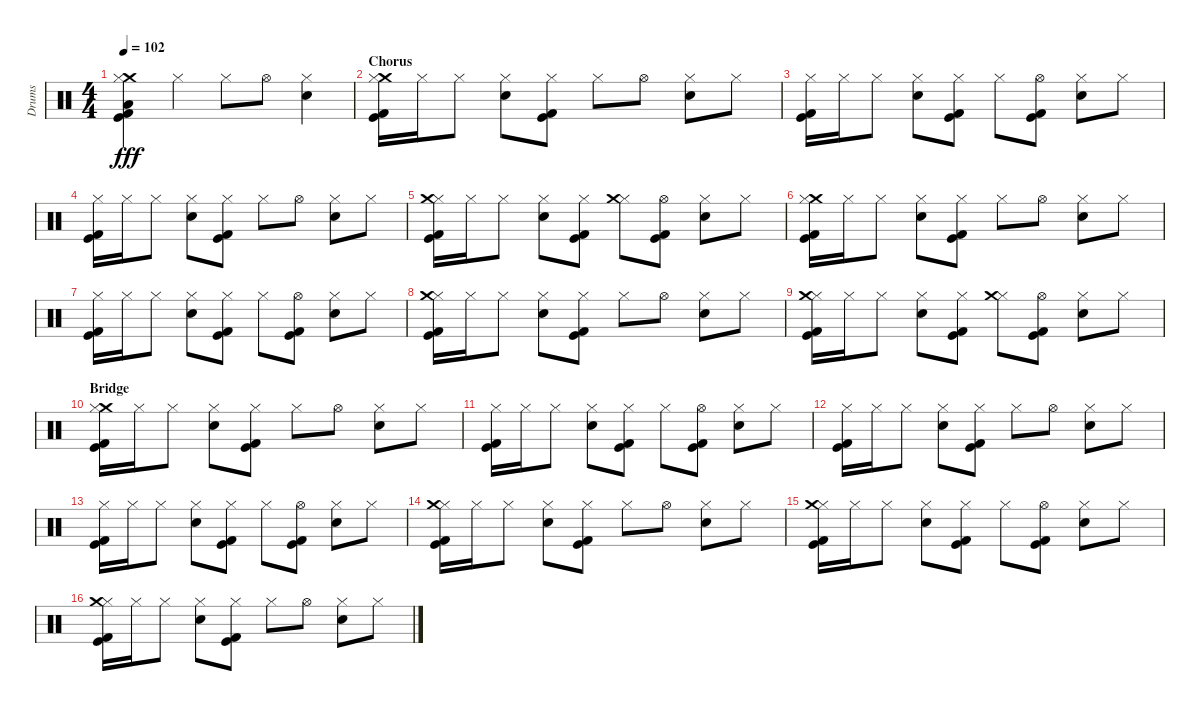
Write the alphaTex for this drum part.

\track ("Drums" "Drums") {instrument percussion}
\staff {score}
\articulation defaults
\ts (4 4)
\tempo 102
\clef neutral
\ks c
("Kick (hit) 2" "Kick (hit)" "Crash medium (hit)" "Low Tom (hit)" "Hi-Hat (closed)").4{dy fff} "Hi-Hat (closed)".4 "Hi-Hat (closed)".8 "Hi-Hat (open)".8 ("Hand Clap (hit)" "Hi-Hat (closed)").4 |
\section ("" "Chorus")
("Crash medium (hit)" "Kick (hit) 2" "Kick (hit)" "Hi-Hat (closed)").16 "Hi-Hat (closed)".16 "Hi-Hat (closed)".8 ("Hand Clap (hit)" "Hi-Hat (closed)").8 ("Kick (hit) 2" "Kick (hit)" "Hi-Hat (closed)").8 "Hi-Hat (closed)".8 "Hi-Hat (open)".8 ("Hand Clap (hit)" "Hi-Hat (closed)").8 "Hi-Hat (closed)".8 |
("Kick (hit) 2" "Kick (hit)" "Hi-Hat (closed)").16 "Hi-Hat (closed)".16 "Hi-Hat (closed)".8 ("Hand Clap (hit)" "Hi-Hat (closed)").8 ("Kick (hit) 2" "Kick (hit)" "Hi-Hat (closed)").8 "Hi-Hat (closed)".8 ("Kick (hit) 2" "Kick (hit)" "Hi-Hat (open)").8 ("Hand Clap (hit)" "Hi-Hat (closed)").8 "Hi-Hat (closed)".8 |
("Kick (hit) 2" "Kick (hit)" "Hi-Hat (closed)").16 "Hi-Hat (closed)".16 "Hi-Hat (closed)".8 ("Hand Clap (hit)" "Hi-Hat (closed)").8 ("Kick (hit) 2" "Kick (hit)" "Hi-Hat (closed)").8 "Hi-Hat (closed)".8 "Hi-Hat (open)".8 ("Hand Clap (hit)" "Hi-Hat (closed)").8 "Hi-Hat (closed)".8 |
("Kick (hit) 2" "Kick (hit)" "Hi-Hat (closed)" "Crash medium (hit)").16 "Hi-Hat (closed)".16 "Hi-Hat (closed)".8 ("Hand Clap (hit)" "Hi-Hat (closed)").8 ("Kick (hit) 2" "Kick (hit)" "Hi-Hat (closed)").8 ("Hi-Hat (closed)" "Crash medium (hit)").8 ("Kick (hit) 2" "Kick (hit)" "Hi-Hat (open)").8 ("Hand Clap (hit)" "Hi-Hat (closed)").8 "Hi-Hat (closed)".8 |
("Crash medium (hit)" "Kick (hit) 2" "Kick (hit)" "Hi-Hat (closed)").16 "Hi-Hat (closed)".16 "Hi-Hat (closed)".8 ("Hand Clap (hit)" "Hi-Hat (closed)").8 ("Kick (hit) 2" "Kick (hit)" "Hi-Hat (closed)").8 "Hi-Hat (closed)".8 "Hi-Hat (open)".8 ("Hand Clap (hit)" "Hi-Hat (closed)").8 "Hi-Hat (closed)".8 |
("Kick (hit) 2" "Kick (hit)" "Hi-Hat (closed)").16 "Hi-Hat (closed)".16 "Hi-Hat (closed)".8 ("Hand Clap (hit)" "Hi-Hat (closed)").8 ("Kick (hit) 2" "Kick (hit)" "Hi-Hat (closed)").8 "Hi-Hat (closed)".8 ("Kick (hit) 2" "Kick (hit)" "Hi-Hat (open)").8 ("Hand Clap (hit)" "Hi-Hat (closed)").8 "Hi-Hat (closed)".8 |
("Kick (hit) 2" "Kick (hit)" "Hi-Hat (closed)" "Crash medium (hit)").16 "Hi-Hat (closed)".16 "Hi-Hat (closed)".8 ("Hand Clap (hit)" "Hi-Hat (closed)").8 ("Kick (hit) 2" "Kick (hit)" "Hi-Hat (closed)").8 "Hi-Hat (closed)".8 "Hi-Hat (open)".8 ("Hand Clap (hit)" "Hi-Hat (closed)").8 "Hi-Hat (closed)".8 |
("Kick (hit) 2" "Kick (hit)" "Hi-Hat (closed)" "Crash medium (hit)").16 "Hi-Hat (closed)".16 "Hi-Hat (closed)".8 ("Hand Clap (hit)" "Hi-Hat (closed)").8 ("Kick (hit) 2" "Kick (hit)" "Hi-Hat (closed)").8 ("Hi-Hat (closed)" "Crash medium (hit)").8 ("Kick (hit) 2" "Kick (hit)" "Hi-Hat (open)").8 ("Hand Clap (hit)" "Hi-Hat (closed)").8 "Hi-Hat (closed)".8 |
\section ("" "Bridge")
("Crash medium (hit)" "Kick (hit) 2" "Kick (hit)" "Hi-Hat (closed)").16 "Hi-Hat (closed)".16 "Hi-Hat (closed)".8 ("Hand Clap (hit)" "Hi-Hat (closed)").8 ("Kick (hit) 2" "Kick (hit)" "Hi-Hat (closed)").8 "Hi-Hat (closed)".8 "Hi-Hat (open)".8 ("Hand Clap (hit)" "Hi-Hat (closed)").8 "Hi-Hat (closed)".8 |
("Kick (hit) 2" "Kick (hit)" "Hi-Hat (closed)").16 "Hi-Hat (closed)".16 "Hi-Hat (closed)".8 ("Hand Clap (hit)" "Hi-Hat (closed)").8 ("Kick (hit) 2" "Kick (hit)" "Hi-Hat (closed)").8 "Hi-Hat (closed)".8 ("Kick (hit) 2" "Kick (hit)" "Hi-Hat (open)").8 ("Hand Clap (hit)" "Hi-Hat (closed)").8 "Hi-Hat (closed)".8 |
("Kick (hit) 2" "Kick (hit)" "Hi-Hat (closed)").16 "Hi-Hat (closed)".16 "Hi-Hat (closed)".8 ("Hand Clap (hit)" "Hi-Hat (closed)").8 ("Kick (hit) 2" "Kick (hit)" "Hi-Hat (closed)").8 "Hi-Hat (closed)".8 "Hi-Hat (open)".8 ("Hand Clap (hit)" "Hi-Hat (closed)").8 "Hi-Hat (closed)".8 |
("Kick (hit) 2" "Kick (hit)" "Hi-Hat (closed)").16 "Hi-Hat (closed)".16 "Hi-Hat (closed)".8 ("Hand Clap (hit)" "Hi-Hat (closed)").8 ("Kick (hit) 2" "Kick (hit)" "Hi-Hat (closed)").8 "Hi-Hat (closed)".8 ("Kick (hit) 2" "Kick (hit)" "Hi-Hat (open)").8 ("Hand Clap (hit)" "Hi-Hat (closed)").8 "Hi-Hat (closed)".8 |
("Kick (hit) 2" "Kick (hit)" "Hi-Hat (closed)" "Crash medium (hit)").16 "Hi-Hat (closed)".16 "Hi-Hat (closed)".8 ("Hand Clap (hit)" "Hi-Hat (closed)").8 ("Kick (hit) 2" "Kick (hit)" "Hi-Hat (closed)").8 "Hi-Hat (closed)".8 "Hi-Hat (open)".8 ("Hand Clap (hit)" "Hi-Hat (closed)").8 "Hi-Hat (closed)".8 |
("Kick (hit) 2" "Kick (hit)" "Hi-Hat (closed)" "Crash medium (hit)").16 "Hi-Hat (closed)".16 "Hi-Hat (closed)".8 ("Hand Clap (hit)" "Hi-Hat (closed)").8 ("Kick (hit) 2" "Kick (hit)" "Hi-Hat (closed)").8 "Hi-Hat (closed)".8 ("Kick (hit) 2" "Kick (hit)" "Hi-Hat (open)").8 ("Hand Clap (hit)" "Hi-Hat (closed)").8 "Hi-Hat (closed)".8 |
("Kick (hit) 2" "Kick (hit)" "Hi-Hat (closed)" "Crash medium (hit)").16 "Hi-Hat (closed)".16 "Hi-Hat (closed)".8 ("Hand Clap (hit)" "Hi-Hat (closed)").8 ("Kick (hit) 2" "Kick (hit)" "Hi-Hat (closed)").8 "Hi-Hat (closed)".8 "Hi-Hat (open)".8 ("Hand Clap (hit)" "Hi-Hat (closed)").8 "Hi-Hat (closed)".8
